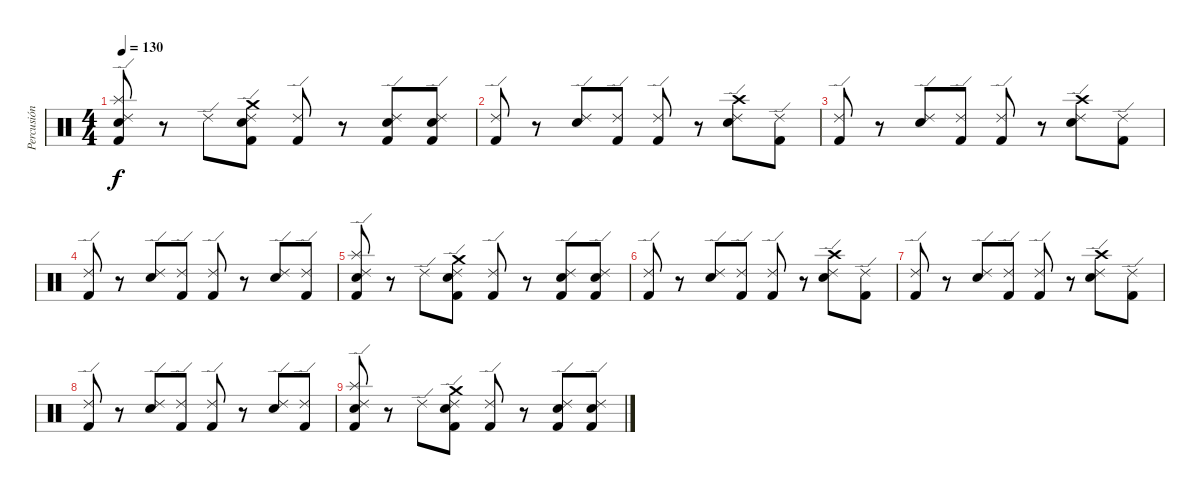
\track ("Percusión" "Percusión") {instrument percussion}
\staff {score}
\articulation defaults
\ts (4 4)
\tempo 130
\clef neutral
\ks c
("Kick (hit) 2" "Snare (hit) 2" "Splash (hit)" "Ride (edge) 2").8{dy f} r.8 "Ride (edge) 2".8 ("Kick (hit) 2" "Snare (hit) 2" "Crash medium (hit)" "Ride (edge) 2").8 ("Kick (hit) 2" "Ride (edge) 2").8 r.8 ("Kick (hit) 2" "Snare (hit) 2" "Ride (edge) 2").8 ("Kick (hit) 2" "Snare (hit) 2" "Ride (edge) 2").8 |
("Kick (hit) 2" "Ride (edge) 2").8{volume 10} r.8 ("Snare (hit) 2" "Ride (edge) 2").8 ("Kick (hit) 2" "Ride (edge) 2").8 ("Kick (hit) 2" "Ride (edge) 2").8 r.8 ("Snare (hit) 2" "Crash high (hit)" "Ride (edge) 2").8 ("Kick (hit) 2" "Ride (edge) 2").8 |
("Kick (hit) 2" "Ride (edge) 2").8 r.8 ("Snare (hit) 2" "Ride (edge) 2").8 ("Kick (hit) 2" "Ride (edge) 2").8 ("Kick (hit) 2" "Ride (edge) 2").8 r.8 ("Snare (hit) 2" "Crash high (hit)" "Ride (edge) 2").8 ("Kick (hit) 2" "Ride (edge) 2").8 |
("Kick (hit) 2" "Ride (edge) 2").8{volume 7} r.8 ("Snare (hit) 2" "Ride (edge) 2").8 ("Kick (hit) 2" "Ride (edge) 2").8 ("Kick (hit) 2" "Ride (edge) 2").8 r.8 ("Snare (hit) 2" "Ride (edge) 2").8 ("Kick (hit) 2" "Ride (edge) 2").8 |
("Kick (hit) 2" "Snare (hit) 2" "Splash (hit)" "Ride (edge) 2").8 r.8 "Ride (edge) 2".8 ("Kick (hit) 2" "Snare (hit) 2" "Crash medium (hit)" "Ride (edge) 2").8 ("Kick (hit) 2" "Ride (edge) 2").8 r.8 ("Kick (hit) 2" "Snare (hit) 2" "Ride (edge) 2").8 ("Kick (hit) 2" "Snare (hit) 2" "Ride (edge) 2").8 |
("Kick (hit) 2" "Ride (edge) 2").8{volume 4} r.8 ("Snare (hit) 2" "Ride (edge) 2").8 ("Kick (hit) 2" "Ride (edge) 2").8 ("Kick (hit) 2" "Ride (edge) 2").8 r.8 ("Snare (hit) 2" "Crash high (hit)" "Ride (edge) 2").8 ("Kick (hit) 2" "Ride (edge) 2").8 |
("Kick (hit) 2" "Ride (edge) 2").8 r.8 ("Snare (hit) 2" "Ride (edge) 2").8 ("Kick (hit) 2" "Ride (edge) 2").8 ("Kick (hit) 2" "Ride (edge) 2").8 r.8 ("Snare (hit) 2" "Crash high (hit)" "Ride (edge) 2").8 ("Kick (hit) 2" "Ride (edge) 2").8 |
("Kick (hit) 2" "Ride (edge) 2").8{volume 0} r.8 ("Snare (hit) 2" "Ride (edge) 2").8 ("Kick (hit) 2" "Ride (edge) 2").8 ("Kick (hit) 2" "Ride (edge) 2").8 r.8 ("Snare (hit) 2" "Ride (edge) 2").8 ("Kick (hit) 2" "Ride (edge) 2").8 |
("Kick (hit) 2" "Snare (hit) 2" "Splash (hit)" "Ride (edge) 2").8 r.8 "Ride (edge) 2".8 ("Kick (hit) 2" "Snare (hit) 2" "Crash medium (hit)" "Ride (edge) 2").8 ("Kick (hit) 2" "Ride (edge) 2").8 r.8 ("Kick (hit) 2" "Snare (hit) 2" "Ride (edge) 2").8 ("Kick (hit) 2" "Snare (hit) 2" "Ride (edge) 2").8
